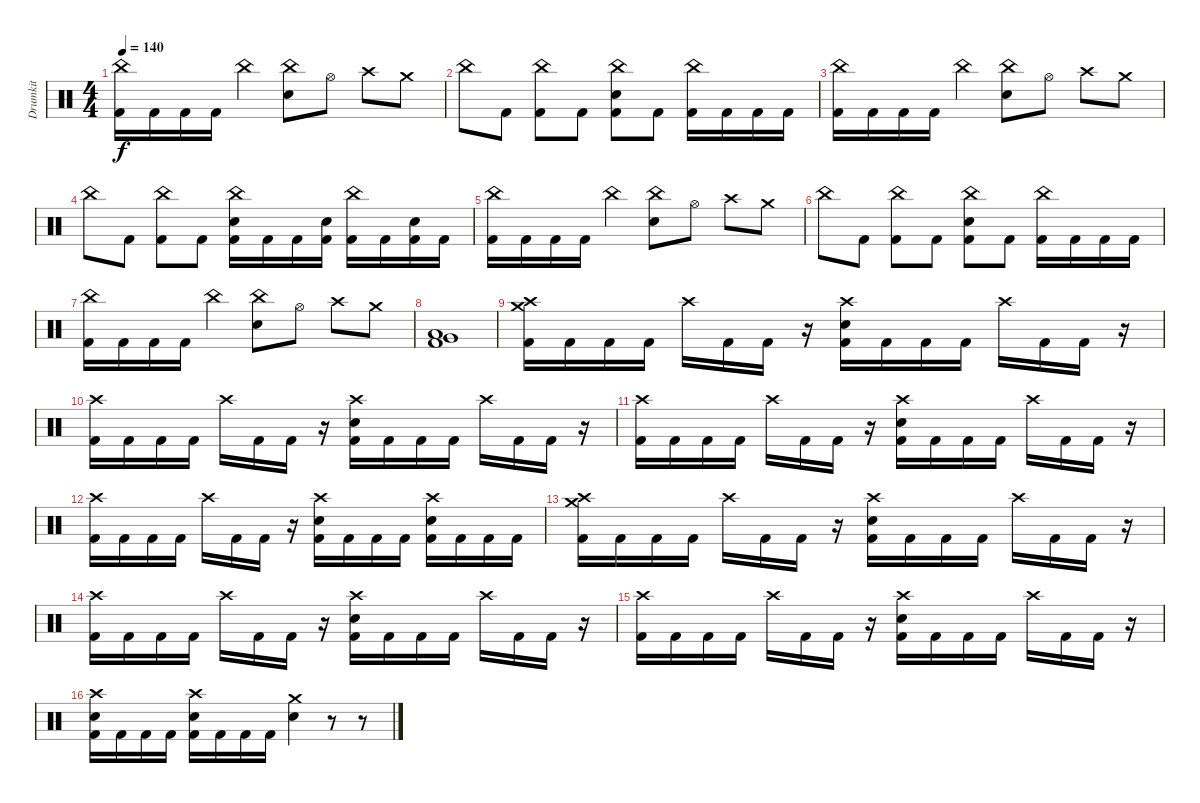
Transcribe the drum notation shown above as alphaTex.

\track ("Drumkit" "Drumkit") {instrument percussion}
\staff {score}
\articulation defaults
\ts (4 4)
\tempo 140
\clef neutral
\ks c
("China (hit)" "Kick (hit) 2").16{dy f} "Kick (hit) 2".16 "Kick (hit) 2".16 "Kick (hit) 2".16 "China (hit)".4 ("China (hit)" "Electric Snare (hit)").8 "Hi-Hat (open)".8 "Crash high (hit)".8 "Crash medium (hit)".8 |
"China (hit)".8 "Kick (hit) 2".8 ("China (hit)" "Kick (hit) 2").8 "Kick (hit) 2".8 ("China (hit)" "Electric Snare (hit)" "Kick (hit) 2").8 "Kick (hit) 2".8 ("China (hit)" "Kick (hit) 2").16 "Kick (hit) 2".16 "Kick (hit) 2".16 "Kick (hit) 2".16 |
("China (hit)" "Kick (hit) 2").16 "Kick (hit) 2".16 "Kick (hit) 2".16 "Kick (hit) 2".16 "China (hit)".4 ("China (hit)" "Electric Snare (hit)").8 "Hi-Hat (open)".8 "Crash high (hit)".8 "Crash medium (hit)".8 |
"China (hit)".8 "Kick (hit) 2".8 ("China (hit)" "Kick (hit) 2").8 "Kick (hit) 2".8 ("China (hit)" "Electric Snare (hit)" "Kick (hit) 2").16 "Kick (hit) 2".16 "Kick (hit) 2".16 ("Electric Snare (hit)" "Kick (hit) 2").16 ("China (hit)" "Kick (hit) 2").16 "Kick (hit) 2".16 ("Electric Snare (hit)" "Kick (hit) 2").16 "Kick (hit) 2".16 |
("China (hit)" "Kick (hit) 2").16 "Kick (hit) 2".16 "Kick (hit) 2".16 "Kick (hit) 2".16 "China (hit)".4 ("China (hit)" "Electric Snare (hit)").8 "Hi-Hat (open)".8 "Crash high (hit)".8 "Crash medium (hit)".8 |
"China (hit)".8 "Kick (hit) 2".8 ("China (hit)" "Kick (hit) 2").8 "Kick (hit) 2".8 ("China (hit)" "Electric Snare (hit)" "Kick (hit) 2").8 "Kick (hit) 2".8 ("China (hit)" "Kick (hit) 2").16 "Kick (hit) 2".16 "Kick (hit) 2".16 "Kick (hit) 2".16 |
("China (hit)" "Kick (hit) 2").16 "Kick (hit) 2".16 "Kick (hit) 2".16 "Kick (hit) 2".16 "China (hit)".4 ("China (hit)" "Electric Snare (hit)").8 "Hi-Hat (open)".8 "Crash high (hit)".8 "Crash medium (hit)".8 |
("Very Low Tom (hit)" "Low Floor Tom (hit)" "Kick (hit) 2").1 |
("Crash high (hit)" "Crash medium (hit)" "Kick (hit) 2").16 "Kick (hit) 2".16 "Kick (hit) 2".16 "Kick (hit) 2".16 "Crash high (hit)".16 "Kick (hit) 2".16 "Kick (hit) 2".16 r.16 ("Crash high (hit)" "Electric Snare (hit)" "Kick (hit) 2").16 "Kick (hit) 2".16 "Kick (hit) 2".16 "Kick (hit) 2".16 "Crash high (hit)".16 "Kick (hit) 2".16 "Kick (hit) 2".16 r.16 |
("Crash high (hit)" "Kick (hit) 2").16 "Kick (hit) 2".16 "Kick (hit) 2".16 "Kick (hit) 2".16 "Crash high (hit)".16 "Kick (hit) 2".16 "Kick (hit) 2".16 r.16 ("Crash high (hit)" "Electric Snare (hit)" "Kick (hit) 2").16 "Kick (hit) 2".16 "Kick (hit) 2".16 "Kick (hit) 2".16 "Crash high (hit)".16 "Kick (hit) 2".16 "Kick (hit) 2".16 r.16 |
("Crash high (hit)" "Kick (hit) 2").16 "Kick (hit) 2".16 "Kick (hit) 2".16 "Kick (hit) 2".16 "Crash high (hit)".16 "Kick (hit) 2".16 "Kick (hit) 2".16 r.16 ("Crash high (hit)" "Electric Snare (hit)" "Kick (hit) 2").16 "Kick (hit) 2".16 "Kick (hit) 2".16 "Kick (hit) 2".16 "Crash high (hit)".16 "Kick (hit) 2".16 "Kick (hit) 2".16 r.16 |
("Crash high (hit)" "Kick (hit) 2").16 "Kick (hit) 2".16 "Kick (hit) 2".16 "Kick (hit) 2".16 "Crash high (hit)".16 "Kick (hit) 2".16 "Kick (hit) 2".16 r.16 ("Crash high (hit)" "Electric Snare (hit)" "Kick (hit) 2").16 "Kick (hit) 2".16 "Kick (hit) 2".16 "Kick (hit) 2".16 ("Crash high (hit)" "Electric Snare (hit)" "Kick (hit) 2").16 "Kick (hit) 2".16 "Kick (hit) 2".16 "Kick (hit) 2".16 |
("Crash high (hit)" "Crash medium (hit)" "Kick (hit) 2").16 "Kick (hit) 2".16 "Kick (hit) 2".16 "Kick (hit) 2".16 "Crash high (hit)".16 "Kick (hit) 2".16 "Kick (hit) 2".16 r.16 ("Crash high (hit)" "Electric Snare (hit)" "Kick (hit) 2").16 "Kick (hit) 2".16 "Kick (hit) 2".16 "Kick (hit) 2".16 "Crash high (hit)".16 "Kick (hit) 2".16 "Kick (hit) 2".16 r.16 |
("Crash high (hit)" "Kick (hit) 2").16 "Kick (hit) 2".16 "Kick (hit) 2".16 "Kick (hit) 2".16 "Crash high (hit)".16 "Kick (hit) 2".16 "Kick (hit) 2".16 r.16 ("Crash high (hit)" "Electric Snare (hit)" "Kick (hit) 2").16 "Kick (hit) 2".16 "Kick (hit) 2".16 "Kick (hit) 2".16 "Crash high (hit)".16 "Kick (hit) 2".16 "Kick (hit) 2".16 r.16 |
("Crash high (hit)" "Kick (hit) 2").16 "Kick (hit) 2".16 "Kick (hit) 2".16 "Kick (hit) 2".16 "Crash high (hit)".16 "Kick (hit) 2".16 "Kick (hit) 2".16 r.16 ("Crash high (hit)" "Electric Snare (hit)" "Kick (hit) 2").16 "Kick (hit) 2".16 "Kick (hit) 2".16 "Kick (hit) 2".16 "Crash high (hit)".16 "Kick (hit) 2".16 "Kick (hit) 2".16 r.16 |
("Crash high (hit)" "Electric Snare (hit)" "Kick (hit) 2").16 "Kick (hit) 2".16 "Kick (hit) 2".16 "Kick (hit) 2".16 ("Crash high (hit)" "Electric Snare (hit)" "Kick (hit) 2").16 "Kick (hit) 2".16 "Kick (hit) 2".16 "Kick (hit) 2".16 ("Crash medium (hit)" "Electric Snare (hit)").4 r.8 r.8
